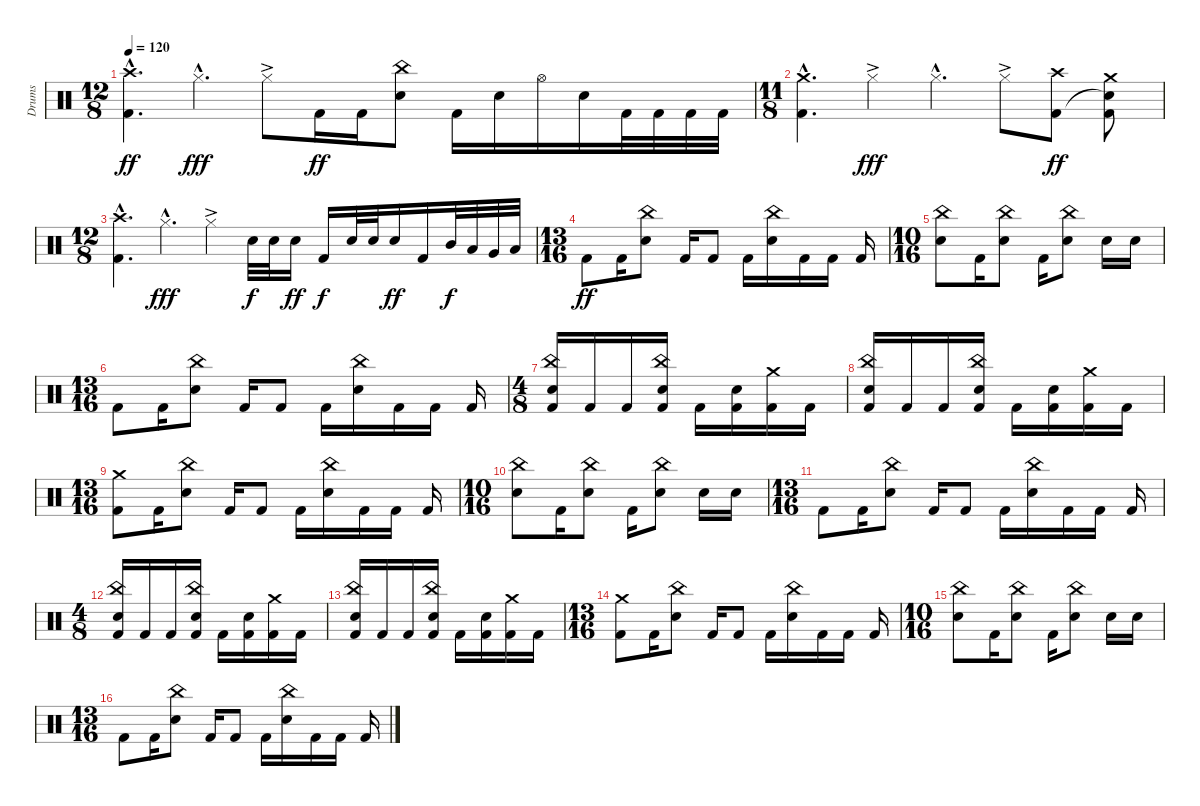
\track ("Drums" "Drums") {instrument percussion}
\staff {score}
\articulation defaults
\ts (12 8)
\tempo 120
\clef neutral
\ks c
("Crash high (hit)"{hac} "Kick (hit) 2"{hac}).4{d dy ff} "Hi-Hat (closed)"{hac}.4{d dy fff} "Hi-Hat (closed)"{ac}.8 "Kick (hit) 2".16{dy ff} "Kick (hit) 2".16 ("China (hit)" "Snare (hit) 2").8 "Kick (hit) 2".16 "Snare (hit) 2".16 "Hi-Hat (open)".16 "Snare (hit) 2".16 "Kick (hit) 2".32 "Kick (hit) 2".32 "Kick (hit) 2".32 "Kick (hit) 2".32 |
\ts (11 8)
("Crash medium (hit)"{hac} "Kick (hit) 2"{hac}).4{d} "Hi-Hat (closed)"{ac}.4{dy fff} "Hi-Hat (closed)"{hac}.4{d} "Hi-Hat (closed)"{ac}.8 ("Crash high (hit)" "Kick (hit) 2").8{dy ff} ("Crash medium (hit)" "Snare (hit)"{t} "Kick (hit) 2").8 |
\ts (12 8)
("Crash high (hit)"{hac} "Kick (hit) 2"{hac}).4{d} "Hi-Hat (closed)"{hac}.4{d dy fff} "Hi-Hat (closed)"{ac}.4 "Snare (hit) 2".32{dy f} "Snare (hit) 2".32 "Snare (hit) 2".16{dy ff} "Kick (hit) 2".16{dy f} "Snare (hit) 2".32 "Snare (hit) 2".32 "Snare (hit) 2".16{dy ff} "Kick (hit) 2".16 "Mid Tom (hit)".32{dy f} "Low Tom (hit)".32 "Very Low Tom (hit)".32 "Low Floor Tom (hit)".32 |
\ts (13 16)
"Kick (hit) 2".8{dy ff} "Kick (hit) 2".16 ("China (hit)" "Snare (hit) 2").8 "Kick (hit) 2".16 "Kick (hit) 2".8 "Kick (hit) 2".16 ("China (hit)" "Snare (hit) 2").16 "Kick (hit) 2".16 "Kick (hit) 2".16 "Kick (hit) 2".16 |
\ts (10 16)
("China (hit)" "Snare (hit) 2").8 "Kick (hit) 2".16 ("China (hit)" "Snare (hit) 2").8 "Kick (hit) 2".16 ("China (hit)" "Snare (hit) 2").8 "Snare (hit) 2".16 "Snare (hit) 2".16 |
\ts (13 16)
"Kick (hit) 2".8 "Kick (hit) 2".16 ("China (hit)" "Snare (hit) 2").8 "Kick (hit) 2".16 "Kick (hit) 2".8 "Kick (hit) 2".16 ("China (hit)" "Snare (hit) 2").16 "Kick (hit) 2".16 "Kick (hit) 2".16 "Kick (hit) 2".16 |
\ts (4 8)
("China (hit)" "Snare (hit) 2" "Kick (hit) 2").16 "Kick (hit) 2".16 "Kick (hit) 2".16 ("China (hit)" "Snare (hit) 2" "Kick (hit) 2").16 "Kick (hit) 2".16 ("Snare (hit) 2" "Kick (hit) 2").16 ("Crash medium (hit)" "Kick (hit) 2").16 "Kick (hit) 2".16 |
("China (hit)" "Snare (hit) 2" "Kick (hit) 2").16 "Kick (hit) 2".16 "Kick (hit) 2".16 ("China (hit)" "Snare (hit) 2" "Kick (hit) 2").16 "Kick (hit) 2".16 ("Snare (hit) 2" "Kick (hit) 2").16 ("Crash medium (hit)" "Kick (hit) 2").16 "Kick (hit) 2".16 |
\ts (13 16)
("Crash medium (hit)" "Kick (hit) 2").8 "Kick (hit) 2".16 ("China (hit)" "Snare (hit) 2").8 "Kick (hit) 2".16 "Kick (hit) 2".8 "Kick (hit) 2".16 ("China (hit)" "Snare (hit) 2").16 "Kick (hit) 2".16 "Kick (hit) 2".16 "Kick (hit) 2".16 |
\ts (10 16)
("China (hit)" "Snare (hit) 2").8 "Kick (hit) 2".16 ("China (hit)" "Snare (hit) 2").8 "Kick (hit) 2".16 ("China (hit)" "Snare (hit) 2").8 "Snare (hit) 2".16 "Snare (hit) 2".16 |
\ts (13 16)
"Kick (hit) 2".8 "Kick (hit) 2".16 ("China (hit)" "Snare (hit) 2").8 "Kick (hit) 2".16 "Kick (hit) 2".8 "Kick (hit) 2".16 ("China (hit)" "Snare (hit) 2").16 "Kick (hit) 2".16 "Kick (hit) 2".16 "Kick (hit) 2".16 |
\ts (4 8)
("China (hit)" "Snare (hit) 2" "Kick (hit) 2").16 "Kick (hit) 2".16 "Kick (hit) 2".16 ("China (hit)" "Snare (hit) 2" "Kick (hit) 2").16 "Kick (hit) 2".16 ("Snare (hit) 2" "Kick (hit) 2").16 ("Crash medium (hit)" "Kick (hit) 2").16 "Kick (hit) 2".16 |
("China (hit)" "Snare (hit) 2" "Kick (hit) 2").16 "Kick (hit) 2".16 "Kick (hit) 2".16 ("China (hit)" "Snare (hit) 2" "Kick (hit) 2").16 "Kick (hit) 2".16 ("Snare (hit) 2" "Kick (hit) 2").16 ("Crash medium (hit)" "Kick (hit) 2").16 "Kick (hit) 2".16 |
\ts (13 16)
("Crash medium (hit)" "Kick (hit) 2").8 "Kick (hit) 2".16 ("China (hit)" "Snare (hit) 2").8 "Kick (hit) 2".16 "Kick (hit) 2".8 "Kick (hit) 2".16 ("China (hit)" "Snare (hit) 2").16 "Kick (hit) 2".16 "Kick (hit) 2".16 "Kick (hit) 2".16 |
\ts (10 16)
("China (hit)" "Snare (hit) 2").8 "Kick (hit) 2".16 ("China (hit)" "Snare (hit) 2").8 "Kick (hit) 2".16 ("China (hit)" "Snare (hit) 2").8 "Snare (hit) 2".16 "Snare (hit) 2".16 |
\ts (13 16)
"Kick (hit) 2".8 "Kick (hit) 2".16 ("China (hit)" "Snare (hit) 2").8 "Kick (hit) 2".16 "Kick (hit) 2".8 "Kick (hit) 2".16 ("China (hit)" "Snare (hit) 2").16 "Kick (hit) 2".16 "Kick (hit) 2".16 "Kick (hit) 2".16
